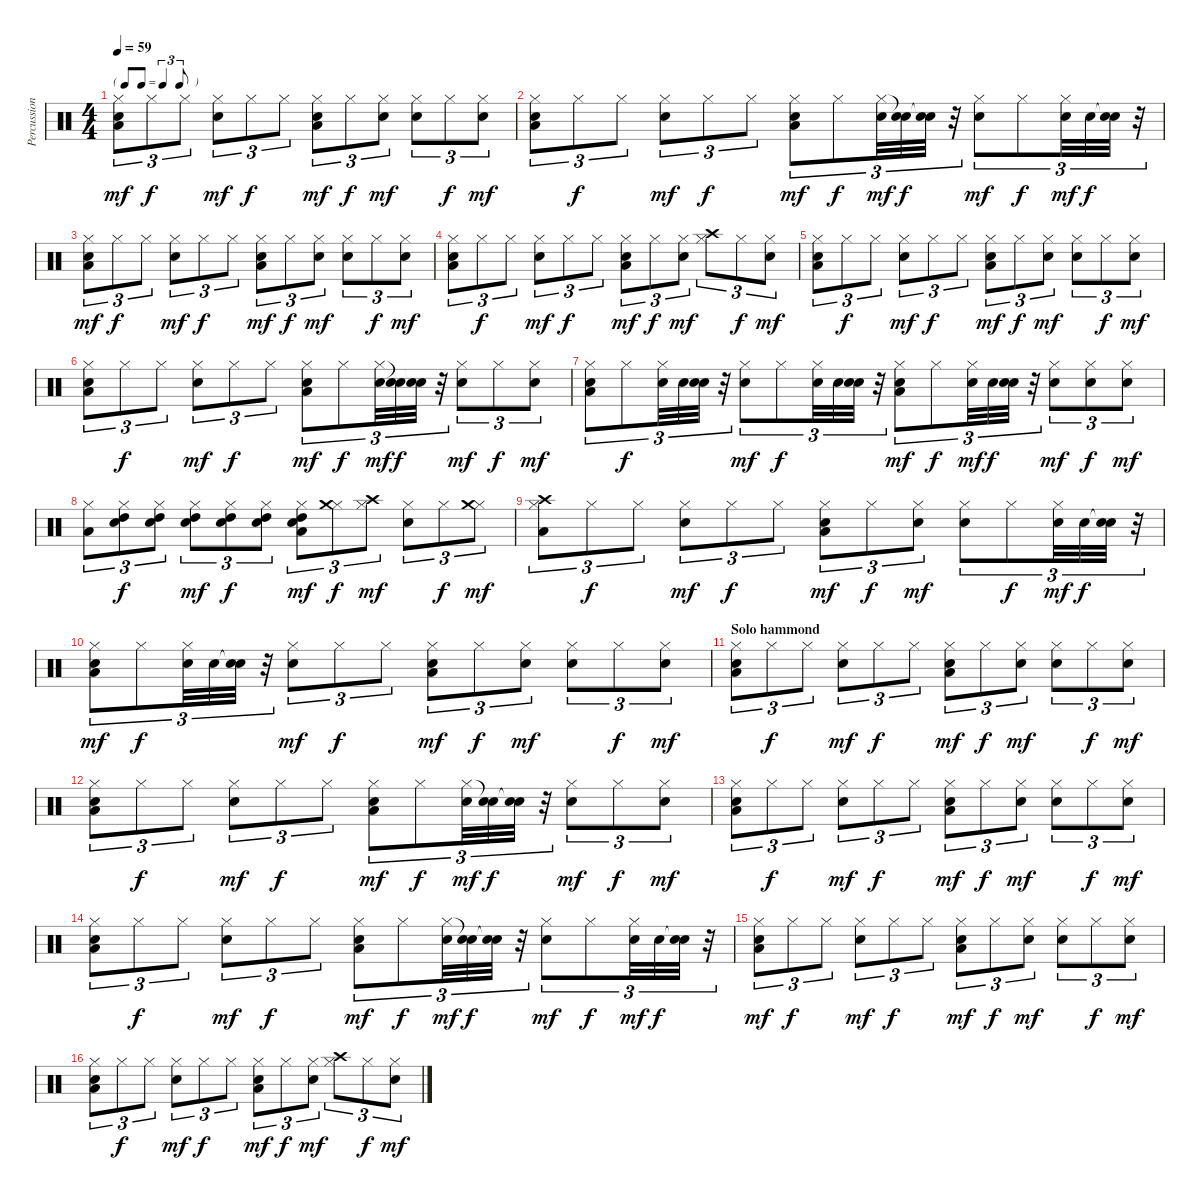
\track ("Percussions (Billasse)" "Percussion") {instrument percussion}
\staff {score}
\articulation defaults
\ts (4 4)
\tf triplet8th
\tempo 59
\clef neutral
\ks c
("Hi-Hat (closed)" "Low Floor Tom (hit)" "Electric Snare (hit)").8{tu (3 2) dy mf} "Hi-Hat (closed)".8{tu (3 2) dy f} "Hi-Hat (closed)".8{tu (3 2)} ("Hi-Hat (closed)" "Electric Snare (hit)").8{tu (3 2) dy mf} "Hi-Hat (closed)".8{tu (3 2) dy f} "Hi-Hat (closed)".8{tu (3 2)} ("Hi-Hat (closed)" "Low Floor Tom (hit)" "Electric Snare (hit)").8{tu (3 2) dy mf} "Hi-Hat (closed)".8{tu (3 2) dy f} ("Hi-Hat (closed)" "Electric Snare (hit)").8{tu (3 2) dy mf} ("Hi-Hat (closed)" "Electric Snare (hit)").8{tu (3 2)} "Hi-Hat (closed)".8{tu (3 2) dy f} ("Hi-Hat (closed)" "Electric Snare (hit)").8{tu (3 2) dy mf} |
("Hi-Hat (closed)" "Low Floor Tom (hit)" "Electric Snare (hit)").8{tu (3 2)} "Hi-Hat (closed)".8{tu (3 2) dy f} "Hi-Hat (closed)".8{tu (3 2)} ("Hi-Hat (closed)" "Electric Snare (hit)").8{tu (3 2) dy mf} "Hi-Hat (closed)".8{tu (3 2) dy f} "Hi-Hat (closed)".8{tu (3 2)} ("Hi-Hat (closed)" "Low Floor Tom (hit)" "Electric Snare (hit)").8{tu (3 2) dy mf} "Hi-Hat (closed)".8{tu (3 2) dy f} ("Hi-Hat (closed)" "Electric Snare (hit)").32{tu (3 2) dy mf} ("Snare (hit)"{t} "Electric Snare (hit)").32{tu (3 2) dy f} ("Snare (hit)"{t} "Electric Snare (hit)").32{tu (3 2)} r.32{tu (3 2)} ("Hi-Hat (closed)" "Electric Snare (hit)").8{tu (3 2) dy mf} "Hi-Hat (closed)".8{tu (3 2) dy f} ("Hi-Hat (closed)" "Electric Snare (hit)").32{tu (3 2) dy mf} "Electric Snare (hit)".32{tu (3 2) dy f} ("Snare (hit)"{t} "Electric Snare (hit)").32{tu (3 2)} r.32{tu (3 2)} |
("Hi-Hat (closed)" "Low Floor Tom (hit)" "Electric Snare (hit)").8{tu (3 2) dy mf} "Hi-Hat (closed)".8{tu (3 2) dy f} "Hi-Hat (closed)".8{tu (3 2)} ("Hi-Hat (closed)" "Electric Snare (hit)").8{tu (3 2) dy mf} "Hi-Hat (closed)".8{tu (3 2) dy f} "Hi-Hat (closed)".8{tu (3 2)} ("Hi-Hat (closed)" "Low Floor Tom (hit)" "Electric Snare (hit)").8{tu (3 2) dy mf} "Hi-Hat (closed)".8{tu (3 2) dy f} ("Hi-Hat (closed)" "Electric Snare (hit)").8{tu (3 2) dy mf} ("Hi-Hat (closed)" "Electric Snare (hit)").8{tu (3 2)} "Hi-Hat (closed)".8{tu (3 2) dy f} ("Hi-Hat (closed)" "Electric Snare (hit)").8{tu (3 2) dy mf} |
("Hi-Hat (closed)" "Low Floor Tom (hit)" "Electric Snare (hit)").8{tu (3 2)} "Hi-Hat (closed)".8{tu (3 2) dy f} "Hi-Hat (closed)".8{tu (3 2)} ("Hi-Hat (closed)" "Electric Snare (hit)").8{tu (3 2) dy mf} "Hi-Hat (closed)".8{tu (3 2) dy f} "Hi-Hat (closed)".8{tu (3 2)} ("Hi-Hat (closed)" "Low Floor Tom (hit)" "Electric Snare (hit)").8{tu (3 2) dy mf} "Hi-Hat (closed)".8{tu (3 2) dy f} ("Hi-Hat (closed)" "Electric Snare (hit)").8{tu (3 2) dy mf} ("Hi-Hat (closed)" "Crash high (hit)").8{tu (3 2)} "Hi-Hat (closed)".8{tu (3 2) dy f} ("Hi-Hat (closed)" "Electric Snare (hit)").8{tu (3 2) dy mf} |
("Hi-Hat (closed)" "Low Floor Tom (hit)" "Electric Snare (hit)").8{tu (3 2)} "Hi-Hat (closed)".8{tu (3 2) dy f} "Hi-Hat (closed)".8{tu (3 2)} ("Hi-Hat (closed)" "Electric Snare (hit)").8{tu (3 2) dy mf} "Hi-Hat (closed)".8{tu (3 2) dy f} "Hi-Hat (closed)".8{tu (3 2)} ("Hi-Hat (closed)" "Low Floor Tom (hit)" "Electric Snare (hit)").8{tu (3 2) dy mf} "Hi-Hat (closed)".8{tu (3 2) dy f} ("Hi-Hat (closed)" "Electric Snare (hit)").8{tu (3 2) dy mf} ("Hi-Hat (closed)" "Electric Snare (hit)").8{tu (3 2)} "Hi-Hat (closed)".8{tu (3 2) dy f} ("Hi-Hat (closed)" "Electric Snare (hit)").8{tu (3 2) dy mf} |
("Hi-Hat (closed)" "Low Floor Tom (hit)" "Electric Snare (hit)").8{tu (3 2)} "Hi-Hat (closed)".8{tu (3 2) dy f} "Hi-Hat (closed)".8{tu (3 2)} ("Hi-Hat (closed)" "Electric Snare (hit)").8{tu (3 2) dy mf} "Hi-Hat (closed)".8{tu (3 2) dy f} "Hi-Hat (closed)".8{tu (3 2)} ("Hi-Hat (closed)" "Low Floor Tom (hit)" "Electric Snare (hit)").8{tu (3 2) dy mf} "Hi-Hat (closed)".8{tu (3 2) dy f} ("Hi-Hat (closed)" "Electric Snare (hit)").32{tu (3 2) dy mf} ("Snare (hit)"{t} "Electric Snare (hit)").32{tu (3 2) dy f} ("Snare (hit)"{t} "Electric Snare (hit)").32{tu (3 2)} r.32{tu (3 2)} ("Hi-Hat (closed)" "Electric Snare (hit)").8{tu (3 2) dy mf} "Hi-Hat (closed)".8{tu (3 2) dy f} ("Hi-Hat (closed)" "Electric Snare (hit)").8{tu (3 2) dy mf} |
("Hi-Hat (closed)" "Low Floor Tom (hit)" "Electric Snare (hit)").8{tu (3 2)} "Hi-Hat (closed)".8{tu (3 2) dy f} ("Hi-Hat (closed)" "Electric Snare (hit)").32{tu (3 2)} "Electric Snare (hit)".32{tu (3 2)} ("Snare (hit)"{t} "Electric Snare (hit)").32{tu (3 2)} r.32{tu (3 2)} ("Hi-Hat (closed)" "Electric Snare (hit)").8{tu (3 2) dy mf} "Hi-Hat (closed)".8{tu (3 2) dy f} ("Hi-Hat (closed)" "Electric Snare (hit)").32{tu (3 2)} "Electric Snare (hit)".32{tu (3 2)} ("Snare (hit)"{t} "Electric Snare (hit)").32{tu (3 2)} r.32{tu (3 2)} ("Hi-Hat (closed)" "Low Floor Tom (hit)" "Electric Snare (hit)").8{tu (3 2) dy mf} "Hi-Hat (closed)".8{tu (3 2) dy f} ("Hi-Hat (closed)" "Electric Snare (hit)").32{tu (3 2) dy mf} "Electric Snare (hit)".32{tu (3 2) dy f} ("Snare (hit)"{t} "Electric Snare (hit)").32{tu (3 2)} r.32{tu (3 2)} ("Hi-Hat (closed)" "Electric Snare (hit)").8{tu (3 2) dy mf} ("Hi-Hat (closed)" "Electric Snare (hit)").8{tu (3 2) dy f} ("Hi-Hat (closed)" "Electric Snare (hit)").8{tu (3 2) dy mf} |
("Hi-Hat (closed)" "Low Floor Tom (hit)").8{tu (3 2)} ("Hi-Hat (closed)" "Electric Snare (hit)" "High Tom (hit)").8{tu (3 2) dy f} ("Hi-Hat (closed)" "Electric Snare (hit)" "High Tom (hit)").8{tu (3 2)} ("Hi-Hat (closed)" "Electric Snare (hit)" "High Tom (hit)").8{tu (3 2) dy mf} ("Hi-Hat (closed)" "Electric Snare (hit)" "High Tom (hit)").8{tu (3 2) dy f} ("Hi-Hat (closed)" "Electric Snare (hit)" "High Tom (hit)").8{tu (3 2)} ("Hi-Hat (closed)" "Low Floor Tom (hit)" "Electric Snare (hit)" "High Tom (hit)").8{tu (3 2) dy mf} ("Hi-Hat (closed)" "Crash medium (hit)").8{tu (3 2) dy f} ("Hi-Hat (closed)" "Crash high (hit)").8{tu (3 2) dy mf} ("Hi-Hat (closed)" "Electric Snare (hit)").8{tu (3 2)} "Hi-Hat (closed)".8{tu (3 2) dy f} ("Hi-Hat (closed)" "Crash medium (hit)").8{tu (3 2) dy mf} |
("Hi-Hat (closed)" "Low Floor Tom (hit)" "Crash high (hit)").8{tu (3 2)} "Hi-Hat (closed)".8{tu (3 2) dy f} "Hi-Hat (closed)".8{tu (3 2)} ("Hi-Hat (closed)" "Electric Snare (hit)").8{tu (3 2) dy mf} "Hi-Hat (closed)".8{tu (3 2) dy f} "Hi-Hat (closed)".8{tu (3 2)} ("Hi-Hat (closed)" "Low Floor Tom (hit)" "Electric Snare (hit)").8{tu (3 2) dy mf} "Hi-Hat (closed)".8{tu (3 2) dy f} ("Hi-Hat (closed)" "Electric Snare (hit)").8{tu (3 2) dy mf} ("Hi-Hat (closed)" "Electric Snare (hit)").8{tu (3 2)} "Hi-Hat (closed)".8{tu (3 2) dy f} ("Hi-Hat (closed)" "Electric Snare (hit)").32{tu (3 2) dy mf} "Electric Snare (hit)".32{tu (3 2) dy f} ("Snare (hit)"{t} "Electric Snare (hit)").32{tu (3 2)} r.32{tu (3 2)} |
("Hi-Hat (closed)" "Low Floor Tom (hit)" "Electric Snare (hit)").8{tu (3 2) dy mf} "Hi-Hat (closed)".8{tu (3 2) dy f} ("Hi-Hat (closed)" "Electric Snare (hit)").32{tu (3 2)} "Electric Snare (hit)".32{tu (3 2)} ("Snare (hit)"{t} "Electric Snare (hit)").32{tu (3 2)} r.32{tu (3 2)} ("Hi-Hat (closed)" "Electric Snare (hit)").8{tu (3 2) dy mf} "Hi-Hat (closed)".8{tu (3 2) dy f} "Hi-Hat (closed)".8{tu (3 2)} ("Hi-Hat (closed)" "Low Floor Tom (hit)" "Electric Snare (hit)").8{tu (3 2) dy mf} "Hi-Hat (closed)".8{tu (3 2) dy f} ("Hi-Hat (closed)" "Electric Snare (hit)").8{tu (3 2) dy mf} ("Hi-Hat (closed)" "Electric Snare (hit)").8{tu (3 2)} "Hi-Hat (closed)".8{tu (3 2) dy f} ("Hi-Hat (closed)" "Electric Snare (hit)").8{tu (3 2) dy mf} |
\section ("" "Solo hammond")
("Hi-Hat (closed)" "Low Floor Tom (hit)" "Electric Snare (hit)").8{tu (3 2)} "Hi-Hat (closed)".8{tu (3 2) dy f} "Hi-Hat (closed)".8{tu (3 2)} ("Hi-Hat (closed)" "Electric Snare (hit)").8{tu (3 2) dy mf} "Hi-Hat (closed)".8{tu (3 2) dy f} "Hi-Hat (closed)".8{tu (3 2)} ("Hi-Hat (closed)" "Low Floor Tom (hit)" "Electric Snare (hit)").8{tu (3 2) dy mf} "Hi-Hat (closed)".8{tu (3 2) dy f} ("Hi-Hat (closed)" "Electric Snare (hit)").8{tu (3 2) dy mf} ("Hi-Hat (closed)" "Electric Snare (hit)").8{tu (3 2)} "Hi-Hat (closed)".8{tu (3 2) dy f} ("Hi-Hat (closed)" "Electric Snare (hit)").8{tu (3 2) dy mf} |
("Hi-Hat (closed)" "Low Floor Tom (hit)" "Electric Snare (hit)").8{tu (3 2)} "Hi-Hat (closed)".8{tu (3 2) dy f} "Hi-Hat (closed)".8{tu (3 2)} ("Hi-Hat (closed)" "Electric Snare (hit)").8{tu (3 2) dy mf} "Hi-Hat (closed)".8{tu (3 2) dy f} "Hi-Hat (closed)".8{tu (3 2)} ("Hi-Hat (closed)" "Low Floor Tom (hit)" "Electric Snare (hit)").8{tu (3 2) dy mf} "Hi-Hat (closed)".8{tu (3 2) dy f} ("Hi-Hat (closed)" "Electric Snare (hit)").32{tu (3 2) dy mf} ("Snare (hit)"{t} "Electric Snare (hit)").32{tu (3 2) dy f} ("Snare (hit)"{t} "Electric Snare (hit)").32{tu (3 2)} r.32{tu (3 2)} ("Hi-Hat (closed)" "Electric Snare (hit)").8{tu (3 2) dy mf} "Hi-Hat (closed)".8{tu (3 2) dy f} ("Hi-Hat (closed)" "Electric Snare (hit)").8{tu (3 2) dy mf} |
("Hi-Hat (closed)" "Low Floor Tom (hit)" "Electric Snare (hit)").8{tu (3 2)} "Hi-Hat (closed)".8{tu (3 2) dy f} "Hi-Hat (closed)".8{tu (3 2)} ("Hi-Hat (closed)" "Electric Snare (hit)").8{tu (3 2) dy mf} "Hi-Hat (closed)".8{tu (3 2) dy f} "Hi-Hat (closed)".8{tu (3 2)} ("Hi-Hat (closed)" "Low Floor Tom (hit)" "Electric Snare (hit)").8{tu (3 2) dy mf} "Hi-Hat (closed)".8{tu (3 2) dy f} ("Hi-Hat (closed)" "Electric Snare (hit)").8{tu (3 2) dy mf} ("Hi-Hat (closed)" "Electric Snare (hit)").8{tu (3 2)} "Hi-Hat (closed)".8{tu (3 2) dy f} ("Hi-Hat (closed)" "Electric Snare (hit)").8{tu (3 2) dy mf} |
("Hi-Hat (closed)" "Low Floor Tom (hit)" "Electric Snare (hit)").8{tu (3 2)} "Hi-Hat (closed)".8{tu (3 2) dy f} "Hi-Hat (closed)".8{tu (3 2)} ("Hi-Hat (closed)" "Electric Snare (hit)").8{tu (3 2) dy mf} "Hi-Hat (closed)".8{tu (3 2) dy f} "Hi-Hat (closed)".8{tu (3 2)} ("Hi-Hat (closed)" "Low Floor Tom (hit)" "Electric Snare (hit)").8{tu (3 2) dy mf} "Hi-Hat (closed)".8{tu (3 2) dy f} ("Hi-Hat (closed)" "Electric Snare (hit)").32{tu (3 2) dy mf} ("Snare (hit)"{t} "Electric Snare (hit)").32{tu (3 2) dy f} ("Snare (hit)"{t} "Electric Snare (hit)").32{tu (3 2)} r.32{tu (3 2)} ("Hi-Hat (closed)" "Electric Snare (hit)").8{tu (3 2) dy mf} "Hi-Hat (closed)".8{tu (3 2) dy f} ("Hi-Hat (closed)" "Electric Snare (hit)").32{tu (3 2) dy mf} "Electric Snare (hit)".32{tu (3 2) dy f} ("Snare (hit)"{t} "Electric Snare (hit)").32{tu (3 2)} r.32{tu (3 2)} |
("Hi-Hat (closed)" "Low Floor Tom (hit)" "Electric Snare (hit)").8{tu (3 2) dy mf} "Hi-Hat (closed)".8{tu (3 2) dy f} "Hi-Hat (closed)".8{tu (3 2)} ("Hi-Hat (closed)" "Electric Snare (hit)").8{tu (3 2) dy mf} "Hi-Hat (closed)".8{tu (3 2) dy f} "Hi-Hat (closed)".8{tu (3 2)} ("Hi-Hat (closed)" "Low Floor Tom (hit)" "Electric Snare (hit)").8{tu (3 2) dy mf} "Hi-Hat (closed)".8{tu (3 2) dy f} ("Hi-Hat (closed)" "Electric Snare (hit)").8{tu (3 2) dy mf} ("Hi-Hat (closed)" "Electric Snare (hit)").8{tu (3 2)} "Hi-Hat (closed)".8{tu (3 2) dy f} ("Hi-Hat (closed)" "Electric Snare (hit)").8{tu (3 2) dy mf} |
("Hi-Hat (closed)" "Low Floor Tom (hit)" "Electric Snare (hit)").8{tu (3 2)} "Hi-Hat (closed)".8{tu (3 2) dy f} "Hi-Hat (closed)".8{tu (3 2)} ("Hi-Hat (closed)" "Electric Snare (hit)").8{tu (3 2) dy mf} "Hi-Hat (closed)".8{tu (3 2) dy f} "Hi-Hat (closed)".8{tu (3 2)} ("Hi-Hat (closed)" "Low Floor Tom (hit)" "Electric Snare (hit)").8{tu (3 2) dy mf} "Hi-Hat (closed)".8{tu (3 2) dy f} ("Hi-Hat (closed)" "Electric Snare (hit)").8{tu (3 2) dy mf} ("Hi-Hat (closed)" "Crash high (hit)").8{tu (3 2)} "Hi-Hat (closed)".8{tu (3 2) dy f} ("Hi-Hat (closed)" "Electric Snare (hit)").8{tu (3 2) dy mf}
